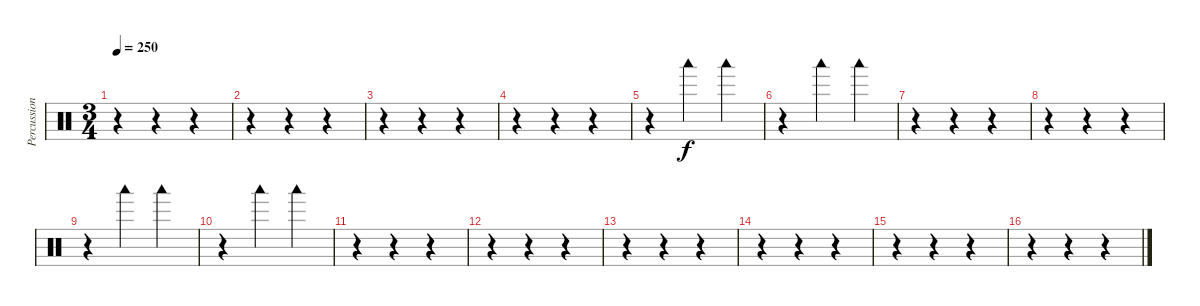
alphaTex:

\track ("Percussions" "Percussion") {instrument percussion}
\staff {score}
\articulation defaults
\ts (3 4)
\tempo 250
\clef neutral
\ks c
r.4{dy f} r.4 r.4 |
r.4 r.4 r.4 |
r.4 r.4 r.4 |
r.4 r.4 r.4 |
r.4 "Woodblock low (hit)".4 "Woodblock low (hit)".4 |
r.4 "Woodblock low (hit)".4 "Woodblock low (hit)".4 |
r.4 r.4 r.4 |
r.4 r.4 r.4 |
r.4 "Woodblock low (hit)".4 "Woodblock low (hit)".4 |
r.4 "Woodblock low (hit)".4 "Woodblock low (hit)".4 |
r.4 r.4 r.4 |
r.4 r.4 r.4 |
r.4 r.4 r.4 |
r.4 r.4 r.4 |
r.4 r.4 r.4 |
r.4 r.4 r.4
